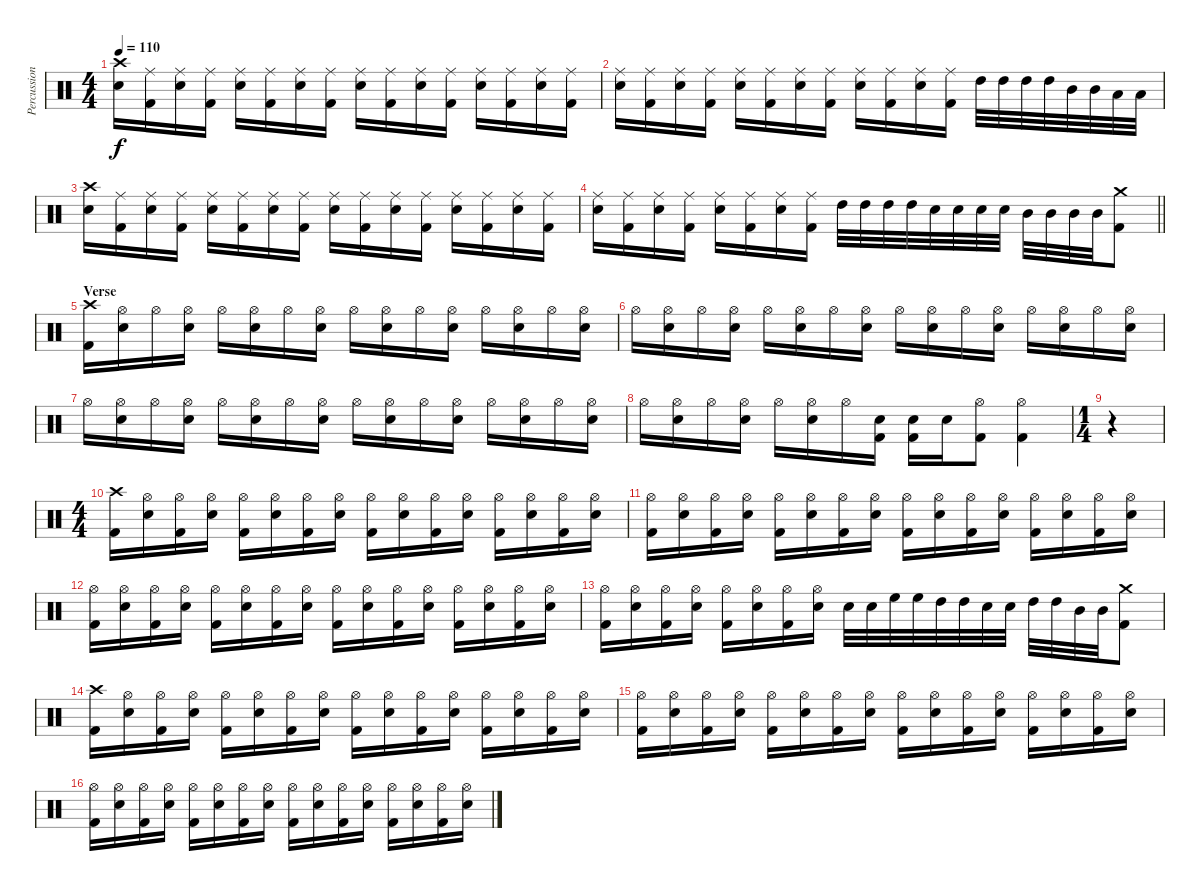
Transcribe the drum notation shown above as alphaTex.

\track ("Percussion" "Percussion") {instrument percussion}
\staff {score}
\articulation defaults
\ts (4 4)
\tempo 110
\clef neutral
\ks c
("Crash high (hit)" "Snare (hit) 2").16{dy f} ("Ride (middle)" "Kick (hit) 2").16 ("Ride (middle)" "Snare (hit) 2").16 ("Ride (middle)" "Kick (hit) 2").16 ("Ride (middle)" "Snare (hit) 2").16 ("Ride (middle)" "Kick (hit) 2").16 ("Ride (middle)" "Snare (hit) 2").16 ("Ride (middle)" "Kick (hit) 2").16 ("Ride (middle)" "Snare (hit) 2").16 ("Ride (middle)" "Kick (hit) 2").16 ("Ride (middle)" "Snare (hit) 2").16 ("Ride (middle)" "Kick (hit) 2").16 ("Ride (middle)" "Snare (hit) 2").16 ("Ride (middle)" "Kick (hit) 2").16 ("Ride (middle)" "Snare (hit) 2").16 ("Ride (middle)" "Kick (hit) 2").16 |
("Ride (middle)" "Snare (hit) 2").16 ("Ride (middle)" "Kick (hit) 2").16 ("Ride (middle)" "Snare (hit) 2").16 ("Ride (middle)" "Kick (hit) 2").16 ("Ride (middle)" "Snare (hit) 2").16 ("Ride (middle)" "Kick (hit) 2").16 ("Ride (middle)" "Snare (hit) 2").16 ("Ride (middle)" "Kick (hit) 2").16 ("Ride (middle)" "Snare (hit) 2").16 ("Ride (middle)" "Kick (hit) 2").16 ("Ride (middle)" "Snare (hit) 2").16 ("Ride (middle)" "Kick (hit) 2").16 "High Tom (hit)".32 "High Tom (hit)".32 "High Tom (hit)".32 "High Tom (hit)".32 "Mid Tom (hit)".32 "Mid Tom (hit)".32 "Low Tom (hit)".32 "Low Tom (hit)".32 |
("Crash high (hit)" "Snare (hit) 2").16 ("Ride (middle)" "Kick (hit) 2").16 ("Ride (middle)" "Snare (hit) 2").16 ("Ride (middle)" "Kick (hit) 2").16 ("Ride (middle)" "Snare (hit) 2").16 ("Ride (middle)" "Kick (hit) 2").16 ("Ride (middle)" "Snare (hit) 2").16 ("Ride (middle)" "Kick (hit) 2").16 ("Ride (middle)" "Snare (hit) 2").16 ("Ride (middle)" "Kick (hit) 2").16 ("Ride (middle)" "Snare (hit) 2").16 ("Ride (middle)" "Kick (hit) 2").16 ("Ride (middle)" "Snare (hit) 2").16 ("Ride (middle)" "Kick (hit) 2").16 ("Ride (middle)" "Snare (hit) 2").16 ("Ride (middle)" "Kick (hit) 2").16 |
\barLineRight lightlight
("Ride (middle)" "Snare (hit) 2").16 ("Ride (middle)" "Kick (hit) 2").16 ("Ride (middle)" "Snare (hit) 2").16 ("Ride (middle)" "Kick (hit) 2").16 ("Ride (middle)" "Snare (hit) 2").16 ("Ride (middle)" "Kick (hit) 2").16 ("Ride (middle)" "Snare (hit) 2").16 ("Ride (middle)" "Kick (hit) 2").16 "High Tom (hit)".32 "High Tom (hit)".32 "High Tom (hit)".32 "High Tom (hit)".32 "Snare (hit) 2".32 "Snare (hit) 2".32 "Snare (hit) 2".32 "Snare (hit) 2".32 "Mid Tom (hit)".32 "Mid Tom (hit)".32 "Mid Tom (hit)".32 "Mid Tom (hit)".32 ("Crash medium (hit)" "Kick (hit) 2").8 |
\section ("" "Verse")
("Crash high (hit)" "Kick (hit) 2").16 ("Hi-Hat (open)" "Snare (hit) 2").16 "Hi-Hat (open)".16 ("Hi-Hat (open)" "Snare (hit) 2").16 "Hi-Hat (open)".16 ("Hi-Hat (open)" "Snare (hit) 2").16 "Hi-Hat (open)".16 ("Hi-Hat (open)" "Snare (hit) 2").16 "Hi-Hat (open)".16 ("Hi-Hat (open)" "Snare (hit) 2").16 "Hi-Hat (open)".16 ("Hi-Hat (open)" "Snare (hit) 2").16 "Hi-Hat (open)".16 ("Hi-Hat (open)" "Snare (hit) 2").16 "Hi-Hat (open)".16 ("Hi-Hat (open)" "Snare (hit) 2").16 |
"Hi-Hat (open)".16 ("Hi-Hat (open)" "Snare (hit) 2").16 "Hi-Hat (open)".16 ("Hi-Hat (open)" "Snare (hit) 2").16 "Hi-Hat (open)".16 ("Hi-Hat (open)" "Snare (hit) 2").16 "Hi-Hat (open)".16 ("Hi-Hat (open)" "Snare (hit) 2").16 "Hi-Hat (open)".16 ("Hi-Hat (open)" "Snare (hit) 2").16 "Hi-Hat (open)".16 ("Hi-Hat (open)" "Snare (hit) 2").16 "Hi-Hat (open)".16 ("Hi-Hat (open)" "Snare (hit) 2").16 "Hi-Hat (open)".16 ("Hi-Hat (open)" "Snare (hit) 2").16 |
"Hi-Hat (open)".16 ("Hi-Hat (open)" "Snare (hit) 2").16 "Hi-Hat (open)".16 ("Hi-Hat (open)" "Snare (hit) 2").16 "Hi-Hat (open)".16 ("Hi-Hat (open)" "Snare (hit) 2").16 "Hi-Hat (open)".16 ("Hi-Hat (open)" "Snare (hit) 2").16 "Hi-Hat (open)".16 ("Hi-Hat (open)" "Snare (hit) 2").16 "Hi-Hat (open)".16 ("Hi-Hat (open)" "Snare (hit) 2").16 "Hi-Hat (open)".16 ("Hi-Hat (open)" "Snare (hit) 2").16 "Hi-Hat (open)".16 ("Hi-Hat (open)" "Snare (hit) 2").16 |
"Hi-Hat (open)".16 ("Hi-Hat (open)" "Snare (hit) 2").16 "Hi-Hat (open)".16 ("Hi-Hat (open)" "Snare (hit) 2").16 "Hi-Hat (open)".16 ("Hi-Hat (open)" "Snare (hit) 2").16 "Hi-Hat (open)".16 ("Snare (hit) 2" "Kick (hit) 2").16 ("Snare (hit) 2" "Kick (hit) 2").16 "Snare (hit) 2".16 ("Hi-Hat (open)" "Kick (hit) 2").8 ("Hi-Hat (open)" "Kick (hit) 2").4 |
\ts (1 4)
r.4 |
\ts (4 4)
("Crash high (hit)" "Kick (hit) 2").16 ("Hi-Hat (open)" "Snare (hit) 2").16 ("Hi-Hat (open)" "Kick (hit) 2").16 ("Hi-Hat (open)" "Snare (hit) 2").16 ("Hi-Hat (open)" "Kick (hit) 2").16 ("Hi-Hat (open)" "Snare (hit) 2").16 ("Hi-Hat (open)" "Kick (hit) 2").16 ("Hi-Hat (open)" "Snare (hit) 2").16 ("Hi-Hat (open)" "Kick (hit) 2").16 ("Hi-Hat (open)" "Snare (hit) 2").16 ("Hi-Hat (open)" "Kick (hit) 2").16 ("Hi-Hat (open)" "Snare (hit) 2").16 ("Hi-Hat (open)" "Kick (hit) 2").16 ("Hi-Hat (open)" "Snare (hit) 2").16 ("Hi-Hat (open)" "Kick (hit) 2").16 ("Hi-Hat (open)" "Snare (hit) 2").16 |
("Hi-Hat (open)" "Kick (hit) 2").16 ("Hi-Hat (open)" "Snare (hit) 2").16 ("Hi-Hat (open)" "Kick (hit) 2").16 ("Hi-Hat (open)" "Snare (hit) 2").16 ("Hi-Hat (open)" "Kick (hit) 2").16 ("Hi-Hat (open)" "Snare (hit) 2").16 ("Hi-Hat (open)" "Kick (hit) 2").16 ("Hi-Hat (open)" "Snare (hit) 2").16 ("Hi-Hat (open)" "Kick (hit) 2").16 ("Hi-Hat (open)" "Snare (hit) 2").16 ("Hi-Hat (open)" "Kick (hit) 2").16 ("Hi-Hat (open)" "Snare (hit) 2").16 ("Hi-Hat (open)" "Kick (hit) 2").16 ("Hi-Hat (open)" "Snare (hit) 2").16 ("Hi-Hat (open)" "Kick (hit) 2").16 ("Hi-Hat (open)" "Snare (hit) 2").16 |
("Hi-Hat (open)" "Kick (hit) 2").16 ("Hi-Hat (open)" "Snare (hit) 2").16 ("Hi-Hat (open)" "Kick (hit) 2").16 ("Hi-Hat (open)" "Snare (hit) 2").16 ("Hi-Hat (open)" "Kick (hit) 2").16 ("Hi-Hat (open)" "Snare (hit) 2").16 ("Hi-Hat (open)" "Kick (hit) 2").16 ("Hi-Hat (open)" "Snare (hit) 2").16 ("Hi-Hat (open)" "Kick (hit) 2").16 ("Hi-Hat (open)" "Snare (hit) 2").16 ("Hi-Hat (open)" "Kick (hit) 2").16 ("Hi-Hat (open)" "Snare (hit) 2").16 ("Hi-Hat (open)" "Kick (hit) 2").16 ("Hi-Hat (open)" "Snare (hit) 2").16 ("Hi-Hat (open)" "Kick (hit) 2").16 ("Hi-Hat (open)" "Snare (hit) 2").16 |
("Hi-Hat (open)" "Kick (hit) 2").16 ("Hi-Hat (open)" "Snare (hit) 2").16 ("Hi-Hat (open)" "Kick (hit) 2").16 ("Hi-Hat (open)" "Snare (hit) 2").16 ("Hi-Hat (open)" "Kick (hit) 2").16 ("Hi-Hat (open)" "Snare (hit) 2").16 ("Hi-Hat (open)" "Kick (hit) 2").16 ("Hi-Hat (open)" "Snare (hit) 2").16 "Snare (hit) 2".32 "Snare (hit) 2".32 "High Floor Tom (hit)".32 "High Floor Tom (hit)".32 "High Tom (hit)".32 "High Tom (hit)".32 "Snare (hit) 2".32 "Snare (hit) 2".32 "High Tom (hit)".32 "High Tom (hit)".32 "Mid Tom (hit)".32 "Mid Tom (hit)".32 ("Crash medium (hit)" "Kick (hit) 2").8 |
("Crash high (hit)" "Kick (hit) 2").16 ("Hi-Hat (open)" "Snare (hit) 2").16 ("Hi-Hat (open)" "Kick (hit) 2").16 ("Hi-Hat (open)" "Snare (hit) 2").16 ("Hi-Hat (open)" "Kick (hit) 2").16 ("Hi-Hat (open)" "Snare (hit) 2").16 ("Hi-Hat (open)" "Kick (hit) 2").16 ("Hi-Hat (open)" "Snare (hit) 2").16 ("Hi-Hat (open)" "Kick (hit) 2").16 ("Hi-Hat (open)" "Snare (hit) 2").16 ("Hi-Hat (open)" "Kick (hit) 2").16 ("Hi-Hat (open)" "Snare (hit) 2").16 ("Hi-Hat (open)" "Kick (hit) 2").16 ("Hi-Hat (open)" "Snare (hit) 2").16 ("Hi-Hat (open)" "Kick (hit) 2").16 ("Hi-Hat (open)" "Snare (hit) 2").16 |
("Hi-Hat (open)" "Kick (hit) 2").16 ("Hi-Hat (open)" "Snare (hit) 2").16 ("Hi-Hat (open)" "Kick (hit) 2").16 ("Hi-Hat (open)" "Snare (hit) 2").16 ("Hi-Hat (open)" "Kick (hit) 2").16 ("Hi-Hat (open)" "Snare (hit) 2").16 ("Hi-Hat (open)" "Kick (hit) 2").16 ("Hi-Hat (open)" "Snare (hit) 2").16 ("Hi-Hat (open)" "Kick (hit) 2").16 ("Hi-Hat (open)" "Snare (hit) 2").16 ("Hi-Hat (open)" "Kick (hit) 2").16 ("Hi-Hat (open)" "Snare (hit) 2").16 ("Hi-Hat (open)" "Kick (hit) 2").16 ("Hi-Hat (open)" "Snare (hit) 2").16 ("Hi-Hat (open)" "Kick (hit) 2").16 ("Hi-Hat (open)" "Snare (hit) 2").16 |
("Hi-Hat (open)" "Kick (hit) 2").16 ("Hi-Hat (open)" "Snare (hit) 2").16 ("Hi-Hat (open)" "Kick (hit) 2").16 ("Hi-Hat (open)" "Snare (hit) 2").16 ("Hi-Hat (open)" "Kick (hit) 2").16 ("Hi-Hat (open)" "Snare (hit) 2").16 ("Hi-Hat (open)" "Kick (hit) 2").16 ("Hi-Hat (open)" "Snare (hit) 2").16 ("Hi-Hat (open)" "Kick (hit) 2").16 ("Hi-Hat (open)" "Snare (hit) 2").16 ("Hi-Hat (open)" "Kick (hit) 2").16 ("Hi-Hat (open)" "Snare (hit) 2").16 ("Hi-Hat (open)" "Kick (hit) 2").16 ("Hi-Hat (open)" "Snare (hit) 2").16 ("Hi-Hat (open)" "Kick (hit) 2").16 ("Hi-Hat (open)" "Snare (hit) 2").16
